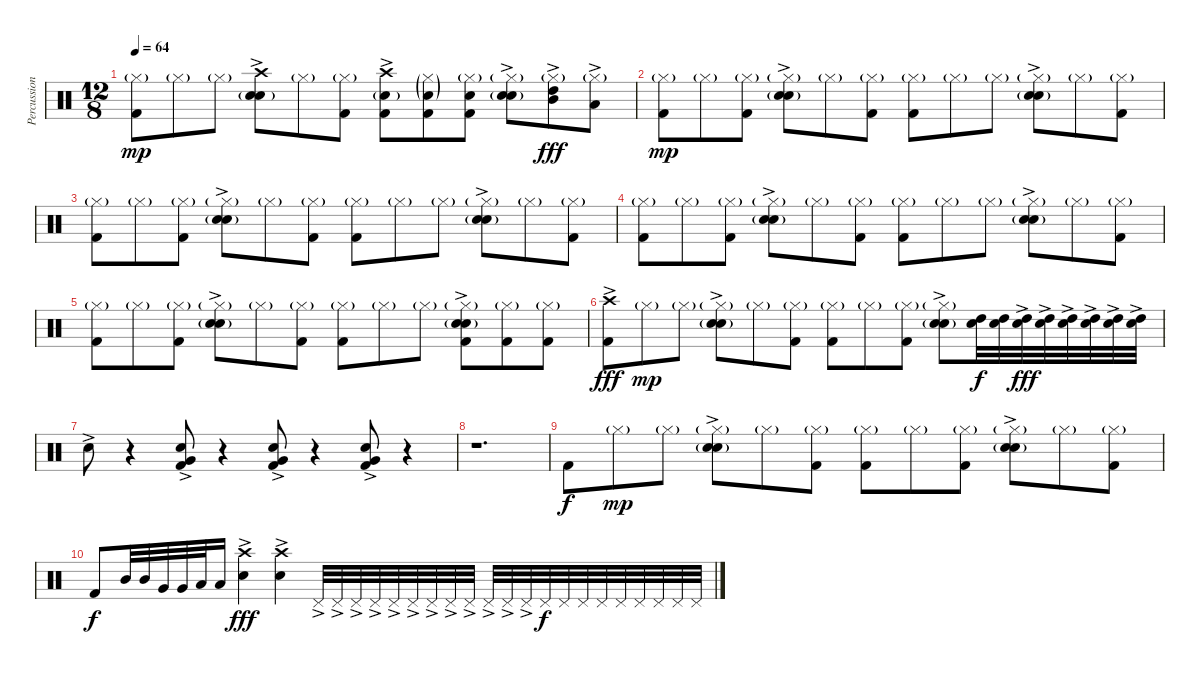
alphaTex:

\track ("Percussion" "Percussion") {instrument percussion}
\staff {score}
\articulation defaults
\ts (12 8)
\tempo 64
\clef neutral
\ks c
("Hi-Hat (closed)"{g} "Kick (hit) 2").8{dy mp} "Hi-Hat (closed)"{g}.8 "Hi-Hat (closed)"{g}.8 ("Crash high (hit)"{ac} "Electric Snare (hit)"{ac} "Snare (hit) 2"{g}).8 "Hi-Hat (closed)"{g}.8 ("Hi-Hat (closed)"{g} "Kick (hit) 2").8 ("Crash high (hit)"{ac} "Electric Snare (hit)"{g} "Kick (hit) 2").8 ("Hi-Hat (closed)"{g} "Electric Snare (hit)"{g} "Kick (hit) 2").8 ("Hi-Hat (closed)"{g} "Electric Snare (hit)" "Kick (hit) 2").8 ("Hi-Hat (closed)"{g} "Electric Snare (hit)"{ac} "Snare (hit) 2"{g}).8 ("Hi-Hat (closed)"{g} "Mid Tom (hit)"{ac} "High Tom (hit)"{ac}).8{dy fff} ("Hi-Hat (closed)"{g} "Low Tom (hit)"{ac}).8 |
("Hi-Hat (closed)"{g} "Kick (hit) 2").8{dy mp} "Hi-Hat (closed)"{g}.8 ("Hi-Hat (closed)"{g} "Kick (hit) 2").8 ("Hi-Hat (closed)"{g} "Electric Snare (hit)"{ac} "Snare (hit) 2"{g}).8 "Hi-Hat (closed)"{g}.8 ("Hi-Hat (closed)"{g} "Kick (hit) 2").8 ("Hi-Hat (closed)"{g} "Kick (hit) 2").8 "Hi-Hat (closed)"{g}.8 "Hi-Hat (closed)"{g}.8 ("Hi-Hat (closed)"{g} "Electric Snare (hit)"{ac} "Snare (hit) 2"{g}).8 "Hi-Hat (closed)"{g}.8 ("Hi-Hat (closed)"{g} "Kick (hit) 2").8 |
("Hi-Hat (closed)"{g} "Kick (hit) 2").8 "Hi-Hat (closed)"{g}.8 ("Hi-Hat (closed)"{g} "Kick (hit) 2").8 ("Hi-Hat (closed)"{g} "Electric Snare (hit)"{ac} "Snare (hit) 2"{g}).8 "Hi-Hat (closed)"{g}.8 ("Hi-Hat (closed)"{g} "Kick (hit) 2").8 ("Hi-Hat (closed)"{g} "Kick (hit) 2").8 "Hi-Hat (closed)"{g}.8 "Hi-Hat (closed)"{g}.8 ("Hi-Hat (closed)"{g} "Electric Snare (hit)"{ac} "Snare (hit) 2"{g}).8 "Hi-Hat (closed)"{g}.8 ("Hi-Hat (closed)"{g} "Kick (hit) 2").8 |
("Hi-Hat (closed)"{g} "Kick (hit) 2").8 "Hi-Hat (closed)"{g}.8 ("Hi-Hat (closed)"{g} "Kick (hit) 2").8 ("Hi-Hat (closed)"{g} "Electric Snare (hit)"{ac} "Snare (hit) 2"{g}).8 "Hi-Hat (closed)"{g}.8 ("Hi-Hat (closed)"{g} "Kick (hit) 2").8 ("Hi-Hat (closed)"{g} "Kick (hit) 2").8 "Hi-Hat (closed)"{g}.8 "Hi-Hat (closed)"{g}.8 ("Hi-Hat (closed)"{g} "Electric Snare (hit)"{ac} "Snare (hit) 2"{g}).8 "Hi-Hat (closed)"{g}.8 ("Hi-Hat (closed)"{g} "Kick (hit) 2").8 |
("Hi-Hat (closed)"{g} "Kick (hit) 2").8 "Hi-Hat (closed)"{g}.8 ("Hi-Hat (closed)"{g} "Kick (hit) 2").8 ("Hi-Hat (closed)"{g} "Electric Snare (hit)"{ac} "Snare (hit) 2"{g}).8 "Hi-Hat (closed)"{g}.8 ("Hi-Hat (closed)"{g} "Kick (hit) 2").8 ("Hi-Hat (closed)"{g} "Kick (hit) 2").8 "Hi-Hat (closed)"{g}.8 "Hi-Hat (closed)"{g}.8 ("Hi-Hat (closed)"{g} "Electric Snare (hit)"{ac} "Snare (hit) 2"{g} "Kick (hit) 2").8 ("Hi-Hat (closed)"{g} "Kick (hit) 2").8 ("Hi-Hat (closed)"{g} "Kick (hit) 2").8 |
("Crash high (hit)"{ac} "Kick (hit) 2").8{dy fff} "Hi-Hat (closed)"{g}.8{dy mp} "Hi-Hat (closed)"{g}.8 ("Hi-Hat (closed)"{g ac} "Electric Snare (hit)"{ac} "Snare (hit) 2"{g}).8 "Hi-Hat (closed)"{g}.8 ("Hi-Hat (closed)"{g} "Kick (hit) 2").8 ("Hi-Hat (closed)"{g} "Kick (hit) 2").8 "Hi-Hat (closed)"{g}.8 ("Hi-Hat (closed)"{g} "Kick (hit) 2").8 ("Hi-Hat (closed)"{g ac} "Electric Snare (hit)"{ac} "Snare (hit) 2"{g}).8 ("Electric Snare (hit)" "High Tom (hit)").32{dy f} ("Electric Snare (hit)" "High Tom (hit)").32 ("Electric Snare (hit)"{ac} "High Tom (hit)").32{dy fff} ("Electric Snare (hit)"{ac} "High Tom (hit)").32 ("Electric Snare (hit)"{ac} "High Tom (hit)").32 ("Electric Snare (hit)"{ac} "High Tom (hit)").32 ("Electric Snare (hit)"{ac} "High Tom (hit)").32 ("Electric Snare (hit)"{ac} "High Tom (hit)").32 |
"Electric Snare (hit)"{ac}.8 r.4 ("Electric Snare (hit)"{ac} "Very Low Tom (hit)" "Kick (hit) 2").8 r.4 ("Electric Snare (hit)"{ac} "Very Low Tom (hit)" "Kick (hit) 2").8 r.4 ("Electric Snare (hit)"{ac} "Very Low Tom (hit)" "Kick (hit) 2").8 r.4 |
r.1{d} |
"Kick (hit) 2".8{dy f} "Hi-Hat (closed)"{g}.8{dy mp} "Hi-Hat (closed)"{g}.8 ("Hi-Hat (closed)"{g ac} "Electric Snare (hit)"{ac} "Snare (hit) 2"{g}).8 "Hi-Hat (closed)"{g}.8 ("Hi-Hat (closed)"{g} "Kick (hit) 2").8 ("Hi-Hat (closed)"{g} "Kick (hit) 2").8 "Hi-Hat (closed)"{g}.8 ("Hi-Hat (closed)"{g} "Kick (hit) 2").8 ("Hi-Hat (closed)"{g ac} "Electric Snare (hit)"{ac} "Snare (hit) 2"{g}).8 "Hi-Hat (closed)"{g}.8 ("Hi-Hat (closed)"{g} "Kick (hit) 2").8 |
"Kick (hit) 2".8{dy f} "Mid Tom (hit)".32 "Mid Tom (hit)".32 "Very Low Tom (hit)".32 "Very Low Tom (hit)".32 "Low Tom (hit)".32 "Low Tom (hit)".16 ("Crash high (hit)"{ac} "Electric Snare (hit)"{ac}).4{dy fff} ("Crash high (hit)"{ac} "Electric Snare (hit)"{ac}).4 "Pedal Hi-Hat (hit)"{ac}.32 "Pedal Hi-Hat (hit)"{ac}.32 "Pedal Hi-Hat (hit)"{ac}.32 "Pedal Hi-Hat (hit)"{ac}.32 "Pedal Hi-Hat (hit)"{ac}.32 "Pedal Hi-Hat (hit)"{ac}.32 "Pedal Hi-Hat (hit)"{ac}.32 "Pedal Hi-Hat (hit)"{ac}.32 "Pedal Hi-Hat (hit)"{ac}.32 "Pedal Hi-Hat (hit)"{ac}.32 "Pedal Hi-Hat (hit)"{ac}.32 "Pedal Hi-Hat (hit)"{ac}.32 "Pedal Hi-Hat (hit)".32{dy f} "Pedal Hi-Hat (hit)".32 "Pedal Hi-Hat (hit)".32 "Pedal Hi-Hat (hit)".32 "Pedal Hi-Hat (hit)".32 "Pedal Hi-Hat (hit)".32 "Pedal Hi-Hat (hit)".32 "Pedal Hi-Hat (hit)".32 "Pedal Hi-Hat (hit)".32
